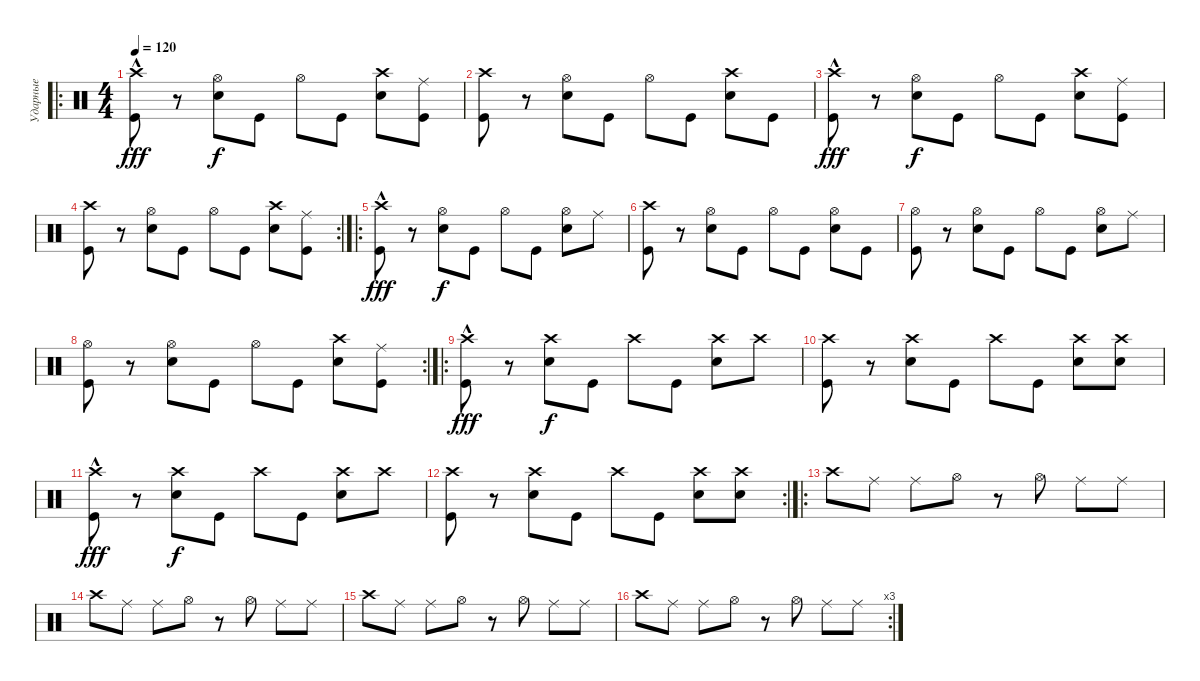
\track ("Ударные" "Ударные") {instrument percussion}
\staff {score}
\articulation defaults
\ro
\ts (4 4)
\tempo 120
\clef neutral
\ks c
("Kick (hit)" "Crash high (hit)"{hac}).8{dy fff} r.8 ("Hi-Hat (open)" "Snare (hit) 2").8{dy f} "Kick (hit)".8 "Hi-Hat (open)".8 "Kick (hit)".8 ("Snare (hit) 2" "Crash high (hit)").8 ("Ride (middle)" "Kick (hit)").8 |
("Kick (hit)" "Crash high (hit)").8 r.8 ("Snare (hit) 2" "Hi-Hat (open)").8 "Kick (hit)".8 "Hi-Hat (open)".8 "Kick (hit)".8 ("Snare (hit) 2" "Crash high (hit)").8 "Kick (hit)".8 |
("Kick (hit)" "Crash high (hit)"{hac}).8{dy fff} r.8 ("Hi-Hat (open)" "Snare (hit) 2").8{dy f} "Kick (hit)".8 "Hi-Hat (open)".8 "Kick (hit)".8 ("Snare (hit) 2" "Crash high (hit)").8 ("Ride (middle)" "Kick (hit)").8 |
\rc 2
("Kick (hit)" "Crash high (hit)").8 r.8 ("Snare (hit) 2" "Hi-Hat (open)").8 "Kick (hit)".8 "Hi-Hat (open)".8 "Kick (hit)".8 ("Snare (hit) 2" "Crash high (hit)").8 ("Kick (hit)" "Ride (middle)").8 |
\ro
("Kick (hit)" "Crash high (hit)"{hac}).8{dy fff} r.8 ("Hi-Hat (open)" "Snare (hit) 2").8{dy f} "Kick (hit)".8 "Hi-Hat (open)".8 "Kick (hit)".8 ("Snare (hit) 2" "Hi-Hat (open)").8 "Ride (middle)".8 |
("Kick (hit)" "Crash high (hit)").8 r.8 ("Snare (hit) 2" "Hi-Hat (open)").8 "Kick (hit)".8 "Hi-Hat (open)".8 "Kick (hit)".8 ("Snare (hit) 2" "Hi-Hat (open)").8 "Kick (hit)".8 |
("Kick (hit)" "Hi-Hat (open)").8 r.8 ("Hi-Hat (open)" "Snare (hit) 2").8 "Kick (hit)".8 "Hi-Hat (open)".8 "Kick (hit)".8 ("Snare (hit) 2" "Hi-Hat (open)").8 "Ride (middle)".8 |
\rc 2
("Kick (hit)" "Hi-Hat (open)").8 r.8 ("Snare (hit) 2" "Hi-Hat (open)").8 "Kick (hit)".8 "Hi-Hat (open)".8 "Kick (hit)".8 ("Snare (hit) 2" "Crash high (hit)").8 ("Ride (middle)" "Kick (hit)").8 |
\ro
("Kick (hit)" "Crash high (hit)"{hac}).8{dy fff} r.8 ("Crash high (hit)" "Snare (hit) 2").8{dy f} "Kick (hit)".8 "Crash high (hit)".8 "Kick (hit)".8 ("Snare (hit) 2" "Crash high (hit)").8 "Crash high (hit)".8 |
("Kick (hit)" "Crash high (hit)").8 r.8 ("Snare (hit) 2" "Crash high (hit)").8 "Kick (hit)".8 "Crash high (hit)".8 "Kick (hit)".8 ("Snare (hit) 2" "Crash high (hit)").8 ("Snare (hit) 2" "Crash high (hit)").8 |
("Kick (hit)" "Crash high (hit)"{hac}).8{dy fff} r.8 ("Crash high (hit)" "Snare (hit) 2").8{dy f} "Kick (hit)".8 "Crash high (hit)".8 "Kick (hit)".8 ("Snare (hit) 2" "Crash high (hit)").8 "Crash high (hit)".8 |
\rc 2
("Kick (hit)" "Crash high (hit)").8 r.8 ("Snare (hit) 2" "Crash high (hit)").8 "Kick (hit)".8 "Crash high (hit)".8 "Kick (hit)".8 ("Snare (hit) 2" "Crash high (hit)").8 ("Snare (hit) 2" "Crash high (hit)").8 |
\ro "Crash high (hit)".8 "Ride (middle)".8 "Ride (middle)".8 "Hi-Hat (open)".8
r.8 "Hi-Hat (open)".8 "Ride (middle)".8 "Ride (middle)".8 |
"Crash high (hit)".8 "Ride (middle)".8 "Ride (middle)".8 "Hi-Hat (open)".8 r.8 "Hi-Hat (open)".8 "Ride (middle)".8 "Ride (middle)".8 |
"Crash high (hit)".8 "Ride (middle)".8 "Ride (middle)".8 "Hi-Hat (open)".8 r.8 "Hi-Hat (open)".8 "Ride (middle)".8 "Ride (middle)".8 |
\rc 3 "Crash high (hit)".8 "Ride (middle)".8 "Ride (middle)".8 "Hi-Hat (open)".8
r.8 "Hi-Hat (open)".8 "Ride (middle)".8 "Ride (middle)".8
